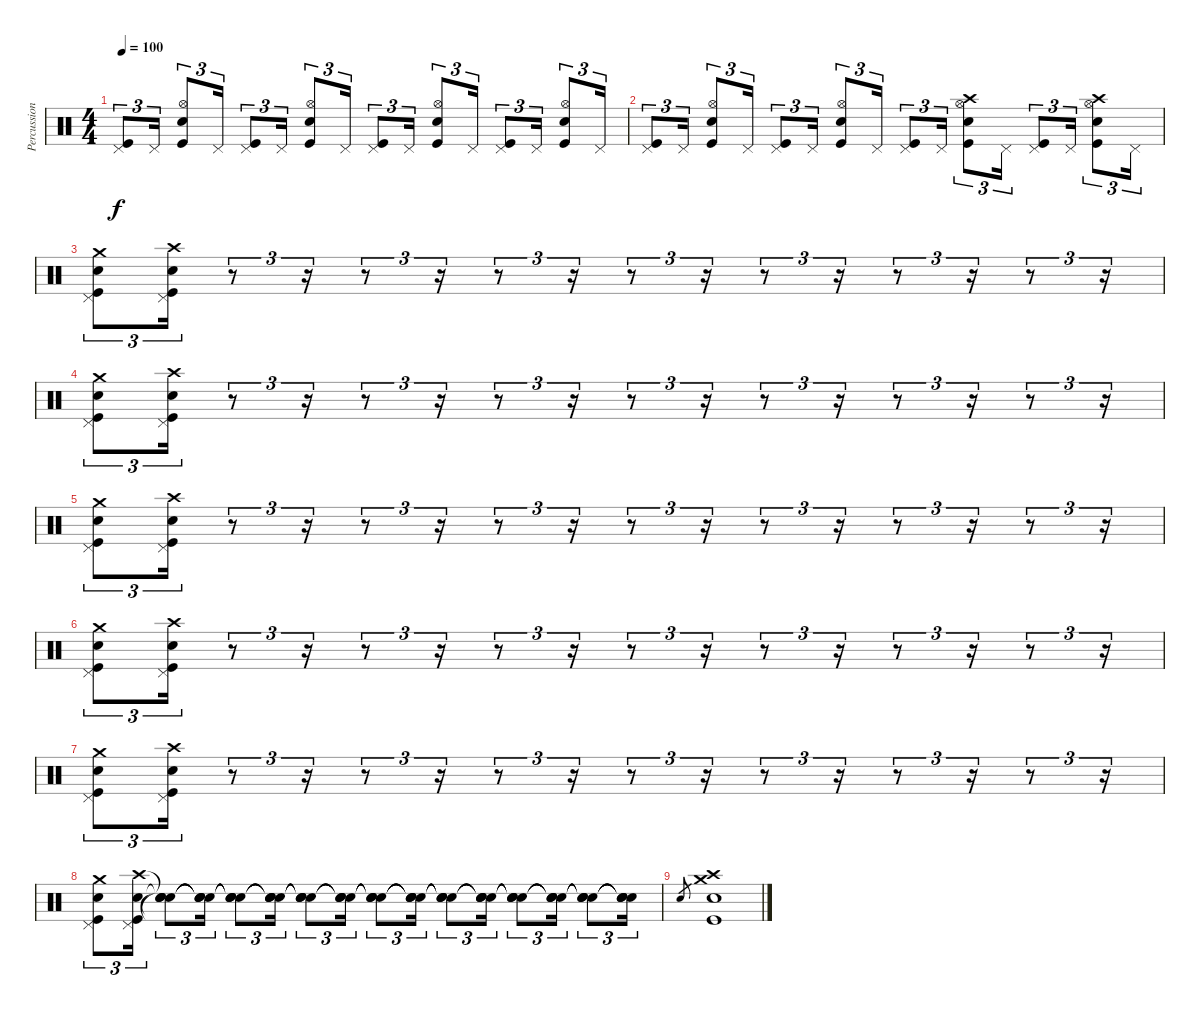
\track ("Percussion" "Percussion") {instrument percussion}
\staff {score}
\articulation defaults
\ts (4 4)
\tempo 100
\clef neutral
\ks c
("Pedal Hi-Hat (hit)" "Kick (hit)").8{tu (3 2) dy f} "Pedal Hi-Hat (hit)".16{tu (3 2)} ("Hi-Hat (open)" "Electric Snare (hit)" "Kick (hit)").8{tu (3 2)} "Pedal Hi-Hat (hit)".16{tu (3 2)} ("Pedal Hi-Hat (hit)" "Kick (hit)").8{tu (3 2)} "Pedal Hi-Hat (hit)".16{tu (3 2)} ("Hi-Hat (open)" "Electric Snare (hit)" "Kick (hit)").8{tu (3 2)} "Pedal Hi-Hat (hit)".16{tu (3 2)} ("Pedal Hi-Hat (hit)" "Kick (hit)").8{tu (3 2)} "Pedal Hi-Hat (hit)".16{tu (3 2)} ("Hi-Hat (open)" "Electric Snare (hit)" "Kick (hit)").8{tu (3 2)} "Pedal Hi-Hat (hit)".16{tu (3 2)} ("Pedal Hi-Hat (hit)" "Kick (hit)").8{tu (3 2)} "Pedal Hi-Hat (hit)".16{tu (3 2)} ("Hi-Hat (open)" "Electric Snare (hit)" "Kick (hit)").8{tu (3 2)} "Pedal Hi-Hat (hit)".16{tu (3 2)} |
("Pedal Hi-Hat (hit)" "Kick (hit)").8{tu (3 2)} "Pedal Hi-Hat (hit)".16{tu (3 2)} ("Hi-Hat (open)" "Electric Snare (hit)" "Kick (hit)").8{tu (3 2)} "Pedal Hi-Hat (hit)".16{tu (3 2)} ("Pedal Hi-Hat (hit)" "Kick (hit)").8{tu (3 2)} "Pedal Hi-Hat (hit)".16{tu (3 2)} ("Hi-Hat (open)" "Electric Snare (hit)" "Kick (hit)").8{tu (3 2)} "Pedal Hi-Hat (hit)".16{tu (3 2)} ("Pedal Hi-Hat (hit)" "Kick (hit)").8{tu (3 2)} "Pedal Hi-Hat (hit)".16{tu (3 2)} ("Crash high (hit)" "Hi-Hat (open)" "Electric Snare (hit)" "Kick (hit)").8{tu (3 2)} "Pedal Hi-Hat (hit)".16{tu (3 2)} ("Pedal Hi-Hat (hit)" "Kick (hit)").8{tu (3 2)} "Pedal Hi-Hat (hit)".16{tu (3 2)} ("Crash high (hit)" "Hi-Hat (open)" "Electric Snare (hit)" "Kick (hit)").8{tu (3 2)} "Pedal Hi-Hat (hit)".16{tu (3 2)} |
("Crash medium (hit)" "Pedal Hi-Hat (hit)" "Electric Snare (hit)" "Kick (hit)").8{tu (3 2)} ("Crash high (hit)" "Pedal Hi-Hat (hit)" "Electric Snare (hit)" "Kick (hit)").16{tu (3 2)} r.8{tu (3 2)} r.16{tu (3 2)} r.8{tu (3 2)} r.16{tu (3 2)} r.8{tu (3 2)} r.16{tu (3 2)} r.8{tu (3 2)} r.16{tu (3 2)} r.8{tu (3 2)} r.16{tu (3 2)} r.8{tu (3 2)} r.16{tu (3 2)} r.8{tu (3 2)} r.16{tu (3 2)} |
("Crash medium (hit)" "Pedal Hi-Hat (hit)" "Electric Snare (hit)" "Kick (hit)").8{tu (3 2)} ("Crash high (hit)" "Pedal Hi-Hat (hit)" "Electric Snare (hit)" "Kick (hit)").16{tu (3 2)} r.8{tu (3 2)} r.16{tu (3 2)} r.8{tu (3 2)} r.16{tu (3 2)} r.8{tu (3 2)} r.16{tu (3 2)} r.8{tu (3 2)} r.16{tu (3 2)} r.8{tu (3 2)} r.16{tu (3 2)} r.8{tu (3 2)} r.16{tu (3 2)} r.8{tu (3 2)} r.16{tu (3 2)} |
("Crash medium (hit)" "Pedal Hi-Hat (hit)" "Electric Snare (hit)" "Kick (hit)").8{tu (3 2)} ("Crash high (hit)" "Pedal Hi-Hat (hit)" "Electric Snare (hit)" "Kick (hit)").16{tu (3 2)} r.8{tu (3 2)} r.16{tu (3 2)} r.8{tu (3 2)} r.16{tu (3 2)} r.8{tu (3 2)} r.16{tu (3 2)} r.8{tu (3 2)} r.16{tu (3 2)} r.8{tu (3 2)} r.16{tu (3 2)} r.8{tu (3 2)} r.16{tu (3 2)} r.8{tu (3 2)} r.16{tu (3 2)} |
("Crash medium (hit)" "Pedal Hi-Hat (hit)" "Electric Snare (hit)" "Kick (hit)").8{tu (3 2)} ("Crash high (hit)" "Pedal Hi-Hat (hit)" "Electric Snare (hit)" "Kick (hit)").16{tu (3 2)} r.8{tu (3 2)} r.16{tu (3 2)} r.8{tu (3 2)} r.16{tu (3 2)} r.8{tu (3 2)} r.16{tu (3 2)} r.8{tu (3 2)} r.16{tu (3 2)} r.8{tu (3 2)} r.16{tu (3 2)} r.8{tu (3 2)} r.16{tu (3 2)} r.8{tu (3 2)} r.16{tu (3 2)} |
("Crash medium (hit)" "Pedal Hi-Hat (hit)" "Electric Snare (hit)" "Kick (hit)").8{tu (3 2)} ("Crash high (hit)" "Pedal Hi-Hat (hit)" "Electric Snare (hit)" "Kick (hit)").16{tu (3 2)} r.8{tu (3 2)} r.16{tu (3 2)} r.8{tu (3 2)} r.16{tu (3 2)} r.8{tu (3 2)} r.16{tu (3 2)} r.8{tu (3 2)} r.16{tu (3 2)} r.8{tu (3 2)} r.16{tu (3 2)} r.8{tu (3 2)} r.16{tu (3 2)} r.8{tu (3 2)} r.16{tu (3 2)} |
("Crash medium (hit)" "Pedal Hi-Hat (hit)" "Electric Snare (hit)" "Kick (hit)").8{tu (3 2)} ("Crash high (hit)" "Pedal Hi-Hat (hit)" "Electric Snare (hit)" "Kick (hit)").16{tu (3 2)} ("Snare (hit)"{t} "Snare (hit)"{t} "Snare (hit)"{t} "Snare (hit)"{t}).8{tu (3 2)} ("Snare (hit)"{t} "Snare (hit)"{t} "Snare (hit)"{t} "Snare (hit)"{t}).16{tu (3 2)} ("Snare (hit)"{t} "Snare (hit)"{t} "Snare (hit)"{t} "Snare (hit)"{t}).8{tu (3 2)} ("Snare (hit)"{t} "Snare (hit)"{t} "Snare (hit)"{t} "Snare (hit)"{t}).16{tu (3 2)} ("Snare (hit)"{t} "Snare (hit)"{t} "Snare (hit)"{t} "Snare (hit)"{t}).8{tu (3 2)} ("Snare (hit)"{t} "Snare (hit)"{t} "Snare (hit)"{t} "Snare (hit)"{t}).16{tu (3 2)} ("Snare (hit)"{t} "Snare (hit)"{t} "Snare (hit)"{t} "Snare (hit)"{t}).8{tu (3 2)} ("Snare (hit)"{t} "Snare (hit)"{t} "Snare (hit)"{t} "Snare (hit)"{t}).16{tu (3 2)} ("Snare (hit)"{t} "Snare (hit)"{t} "Snare (hit)"{t} "Snare (hit)"{t}).8{tu (3 2)} ("Snare (hit)"{t} "Snare (hit)"{t} "Snare (hit)"{t} "Snare (hit)"{t}).16{tu (3 2)} ("Snare (hit)"{t} "Snare (hit)"{t} "Snare (hit)"{t} "Snare (hit)"{t}).8{tu (3 2)} ("Snare (hit)"{t} "Snare (hit)"{t} "Snare (hit)"{t} "Snare (hit)"{t}).16{tu (3 2)} ("Snare (hit)"{t} "Snare (hit)"{t} "Snare (hit)"{t} "Snare (hit)"{t}).8{tu (3 2)} ("Snare (hit)"{t} "Snare (hit)"{t} "Snare (hit)"{t} "Snare (hit)"{t}).16{tu (3 2)} |
"Snare (hit) 2".8{gr} ("Crash high (hit)" "Crash medium (hit)" "Electric Snare (hit)" "Kick (hit)").1
